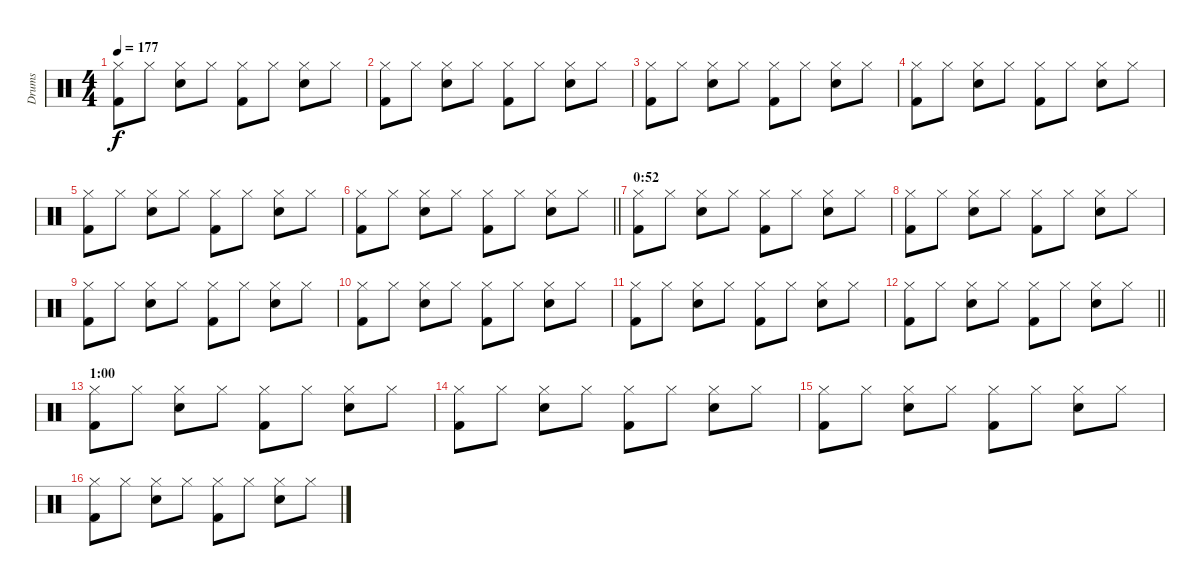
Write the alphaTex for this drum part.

\track ("Drums" "Drums") {instrument percussion}
\staff {score}
\articulation defaults
\ts (4 4)
\tempo 177
\clef neutral
\ks c
("Hi-Hat (closed)" "Kick (hit) 2").8{dy f} "Hi-Hat (closed)".8 ("Hi-Hat (closed)" "Snare (hit) 2").8 "Hi-Hat (closed)".8 ("Hi-Hat (closed)" "Kick (hit) 2").8 "Hi-Hat (closed)".8 ("Hi-Hat (closed)" "Snare (hit) 2").8 "Hi-Hat (closed)".8 |
("Hi-Hat (closed)" "Kick (hit) 2").8 "Hi-Hat (closed)".8 ("Hi-Hat (closed)" "Snare (hit) 2").8 "Hi-Hat (closed)".8 ("Hi-Hat (closed)" "Kick (hit) 2").8 "Hi-Hat (closed)".8 ("Hi-Hat (closed)" "Snare (hit) 2").8 "Hi-Hat (closed)".8 |
("Hi-Hat (closed)" "Kick (hit) 2").8 "Hi-Hat (closed)".8 ("Hi-Hat (closed)" "Snare (hit) 2").8 "Hi-Hat (closed)".8 ("Hi-Hat (closed)" "Kick (hit) 2").8 "Hi-Hat (closed)".8 ("Hi-Hat (closed)" "Snare (hit) 2").8 "Hi-Hat (closed)".8 |
("Hi-Hat (closed)" "Kick (hit) 2").8 "Hi-Hat (closed)".8 ("Hi-Hat (closed)" "Snare (hit) 2").8 "Hi-Hat (closed)".8 ("Hi-Hat (closed)" "Kick (hit) 2").8 "Hi-Hat (closed)".8 ("Hi-Hat (closed)" "Snare (hit) 2").8 "Hi-Hat (closed)".8 |
("Hi-Hat (closed)" "Kick (hit) 2").8 "Hi-Hat (closed)".8 ("Hi-Hat (closed)" "Snare (hit) 2").8 "Hi-Hat (closed)".8 ("Hi-Hat (closed)" "Kick (hit) 2").8 "Hi-Hat (closed)".8 ("Hi-Hat (closed)" "Snare (hit) 2").8 "Hi-Hat (closed)".8 |
\barLineRight lightlight
("Hi-Hat (closed)" "Kick (hit) 2").8 "Hi-Hat (closed)".8 ("Hi-Hat (closed)" "Snare (hit) 2").8 "Hi-Hat (closed)".8 ("Hi-Hat (closed)" "Kick (hit) 2").8 "Hi-Hat (closed)".8 ("Hi-Hat (closed)" "Snare (hit) 2").8 "Hi-Hat (closed)".8 |
\section ("" "0:52")
("Hi-Hat (closed)" "Kick (hit) 2").8 "Hi-Hat (closed)".8 ("Hi-Hat (closed)" "Snare (hit) 2").8 "Hi-Hat (closed)".8 ("Hi-Hat (closed)" "Kick (hit) 2").8 "Hi-Hat (closed)".8 ("Hi-Hat (closed)" "Snare (hit) 2").8 "Hi-Hat (closed)".8 |
("Hi-Hat (closed)" "Kick (hit) 2").8 "Hi-Hat (closed)".8 ("Hi-Hat (closed)" "Snare (hit) 2").8 "Hi-Hat (closed)".8 ("Hi-Hat (closed)" "Kick (hit) 2").8 "Hi-Hat (closed)".8 ("Hi-Hat (closed)" "Snare (hit) 2").8 "Hi-Hat (closed)".8 |
("Hi-Hat (closed)" "Kick (hit) 2").8 "Hi-Hat (closed)".8 ("Hi-Hat (closed)" "Snare (hit) 2").8 "Hi-Hat (closed)".8 ("Hi-Hat (closed)" "Kick (hit) 2").8 "Hi-Hat (closed)".8 ("Hi-Hat (closed)" "Snare (hit) 2").8 "Hi-Hat (closed)".8 |
("Hi-Hat (closed)" "Kick (hit) 2").8 "Hi-Hat (closed)".8 ("Hi-Hat (closed)" "Snare (hit) 2").8 "Hi-Hat (closed)".8 ("Hi-Hat (closed)" "Kick (hit) 2").8 "Hi-Hat (closed)".8 ("Hi-Hat (closed)" "Snare (hit) 2").8 "Hi-Hat (closed)".8 |
("Hi-Hat (closed)" "Kick (hit) 2").8 "Hi-Hat (closed)".8 ("Hi-Hat (closed)" "Snare (hit) 2").8 "Hi-Hat (closed)".8 ("Hi-Hat (closed)" "Kick (hit) 2").8 "Hi-Hat (closed)".8 ("Hi-Hat (closed)" "Snare (hit) 2").8 "Hi-Hat (closed)".8 |
\barLineRight lightlight
("Hi-Hat (closed)" "Kick (hit) 2").8 "Hi-Hat (closed)".8 ("Hi-Hat (closed)" "Snare (hit) 2").8 "Hi-Hat (closed)".8 ("Hi-Hat (closed)" "Kick (hit) 2").8 "Hi-Hat (closed)".8 ("Hi-Hat (closed)" "Snare (hit) 2").8 "Hi-Hat (closed)".8 |
\section ("" "1:00")
("Hi-Hat (closed)" "Kick (hit) 2").8 "Hi-Hat (closed)".8 ("Hi-Hat (closed)" "Snare (hit) 2").8 "Hi-Hat (closed)".8 ("Hi-Hat (closed)" "Kick (hit) 2").8 "Hi-Hat (closed)".8 ("Hi-Hat (closed)" "Snare (hit) 2").8 "Hi-Hat (closed)".8 |
("Hi-Hat (closed)" "Kick (hit) 2").8 "Hi-Hat (closed)".8 ("Hi-Hat (closed)" "Snare (hit) 2").8 "Hi-Hat (closed)".8 ("Hi-Hat (closed)" "Kick (hit) 2").8 "Hi-Hat (closed)".8 ("Hi-Hat (closed)" "Snare (hit) 2").8 "Hi-Hat (closed)".8 |
("Hi-Hat (closed)" "Kick (hit) 2").8 "Hi-Hat (closed)".8 ("Hi-Hat (closed)" "Snare (hit) 2").8 "Hi-Hat (closed)".8 ("Hi-Hat (closed)" "Kick (hit) 2").8 "Hi-Hat (closed)".8 ("Hi-Hat (closed)" "Snare (hit) 2").8 "Hi-Hat (closed)".8 |
("Hi-Hat (closed)" "Kick (hit) 2").8 "Hi-Hat (closed)".8 ("Hi-Hat (closed)" "Snare (hit) 2").8 "Hi-Hat (closed)".8 ("Hi-Hat (closed)" "Kick (hit) 2").8 "Hi-Hat (closed)".8 ("Hi-Hat (closed)" "Snare (hit) 2").8 "Hi-Hat (closed)".8
